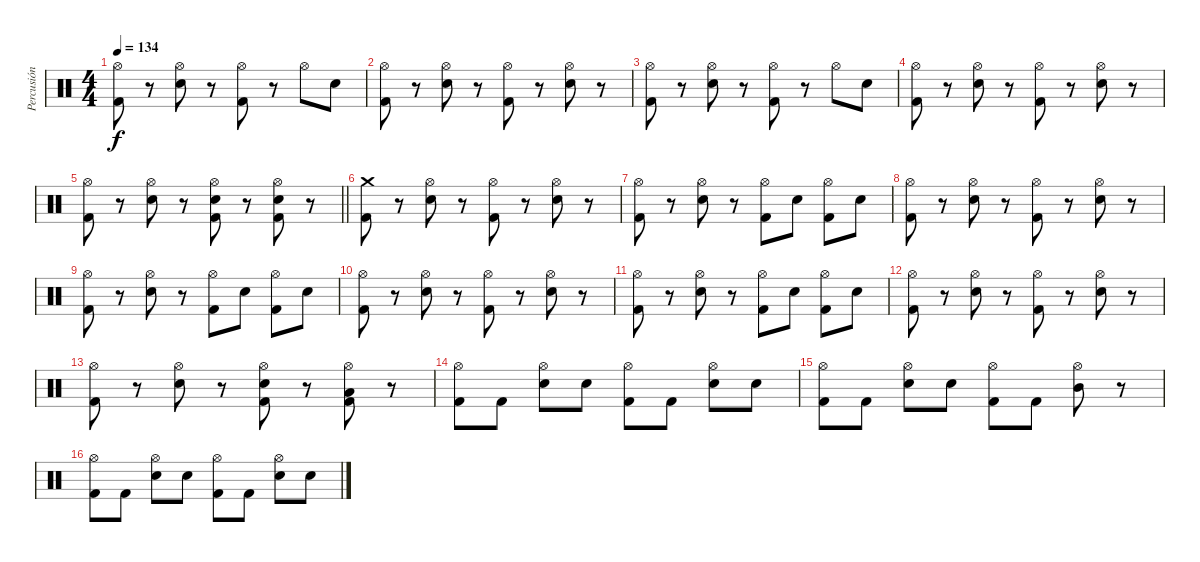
\track ("Percusión" "Percusión") {instrument percussion}
\staff {score}
\articulation defaults
\ts (4 4)
\tempo 134
\clef neutral
\ks c
("Hi-Hat (open)" "Kick (hit) 2").8{dy f} r.8 ("Hi-Hat (open)" "Snare (hit) 2").8 r.8 ("Hi-Hat (open)" "Kick (hit) 2").8 r.8 "Hi-Hat (open)".8 "Snare (hit) 2".8 |
("Hi-Hat (open)" "Kick (hit) 2").8 r.8 ("Hi-Hat (open)" "Snare (hit) 2").8 r.8 ("Hi-Hat (open)" "Kick (hit) 2").8 r.8 ("Hi-Hat (open)" "Snare (hit) 2").8 r.8 |
("Hi-Hat (open)" "Kick (hit) 2").8 r.8 ("Hi-Hat (open)" "Snare (hit) 2").8 r.8 ("Hi-Hat (open)" "Kick (hit) 2").8 r.8 "Hi-Hat (open)".8 "Snare (hit) 2".8 |
("Hi-Hat (open)" "Kick (hit) 2").8 r.8 ("Hi-Hat (open)" "Snare (hit) 2").8 r.8 ("Hi-Hat (open)" "Kick (hit) 2").8 r.8 ("Hi-Hat (open)" "Snare (hit) 2").8 r.8 |
\barLineRight lightlight
("Hi-Hat (open)" "Kick (hit) 2").8 r.8 ("Hi-Hat (open)" "Snare (hit) 2").8 r.8 ("Hi-Hat (open)" "Snare (hit) 2" "Kick (hit) 2").8 r.8 ("Hi-Hat (open)" "Snare (hit) 2" "Kick (hit) 2").8 r.8 |
("Crash medium (hit)" "Kick (hit) 2").8 r.8 ("Hi-Hat (open)" "Snare (hit) 2").8 r.8 ("Hi-Hat (open)" "Kick (hit) 2").8 r.8 ("Hi-Hat (open)" "Snare (hit) 2").8 r.8 |
("Hi-Hat (open)" "Kick (hit) 2").8 r.8 ("Hi-Hat (open)" "Snare (hit) 2").8 r.8 ("Hi-Hat (open)" "Kick (hit) 2").8 "Snare (hit) 2".8 ("Hi-Hat (open)" "Kick (hit) 2").8 "Snare (hit) 2".8 |
("Hi-Hat (open)" "Kick (hit) 2").8 r.8 ("Hi-Hat (open)" "Snare (hit) 2").8 r.8 ("Hi-Hat (open)" "Kick (hit) 2").8 r.8 ("Hi-Hat (open)" "Snare (hit) 2").8 r.8 |
("Hi-Hat (open)" "Kick (hit) 2").8 r.8 ("Hi-Hat (open)" "Snare (hit) 2").8 r.8 ("Hi-Hat (open)" "Kick (hit) 2").8 "Snare (hit) 2".8 ("Hi-Hat (open)" "Kick (hit) 2").8 "Snare (hit) 2".8 |
("Hi-Hat (open)" "Kick (hit) 2").8 r.8 ("Hi-Hat (open)" "Snare (hit) 2").8 r.8 ("Hi-Hat (open)" "Kick (hit) 2").8 r.8 ("Hi-Hat (open)" "Snare (hit) 2").8 r.8 |
("Hi-Hat (open)" "Kick (hit) 2").8 r.8 ("Hi-Hat (open)" "Snare (hit) 2").8 r.8 ("Hi-Hat (open)" "Kick (hit) 2").8 "Snare (hit) 2".8 ("Hi-Hat (open)" "Kick (hit) 2").8 "Snare (hit) 2".8 |
("Hi-Hat (open)" "Kick (hit) 2").8 r.8 ("Hi-Hat (open)" "Snare (hit) 2").8 r.8 ("Hi-Hat (open)" "Kick (hit) 2").8 r.8 ("Hi-Hat (open)" "Snare (hit) 2").8 r.8 |
("Hi-Hat (open)" "Kick (hit) 2").8 r.8 ("Hi-Hat (open)" "Snare (hit) 2").8 r.8 ("Hi-Hat (open)" "Snare (hit) 2" "Kick (hit) 2").8 r.8 ("Hi-Hat (open)" "Low Floor Tom (hit)" "Kick (hit) 2").8 r.8 |
("Hi-Hat (open)" "Kick (hit) 2").8 "Kick (hit) 2".8 ("Hi-Hat (open)" "Snare (hit) 2").8 "Snare (hit) 2".8 ("Hi-Hat (open)" "Kick (hit) 2").8 "Kick (hit) 2".8 ("Hi-Hat (open)" "Snare (hit) 2").8 "Snare (hit) 2".8 |
("Hi-Hat (open)" "Kick (hit) 2").8 "Kick (hit) 2".8 ("Hi-Hat (open)" "Snare (hit) 2").8 "Snare (hit) 2".8 ("Hi-Hat (open)" "Kick (hit) 2").8 "Kick (hit) 2".8 ("Hi-Hat (open)" "Mid Tom (hit)").8 r.8 |
("Hi-Hat (open)" "Kick (hit) 2").8 "Kick (hit) 2".8 ("Hi-Hat (open)" "Snare (hit) 2").8 "Snare (hit) 2".8 ("Hi-Hat (open)" "Kick (hit) 2").8 "Kick (hit) 2".8 ("Hi-Hat (open)" "Snare (hit) 2").8 "Snare (hit) 2".8
